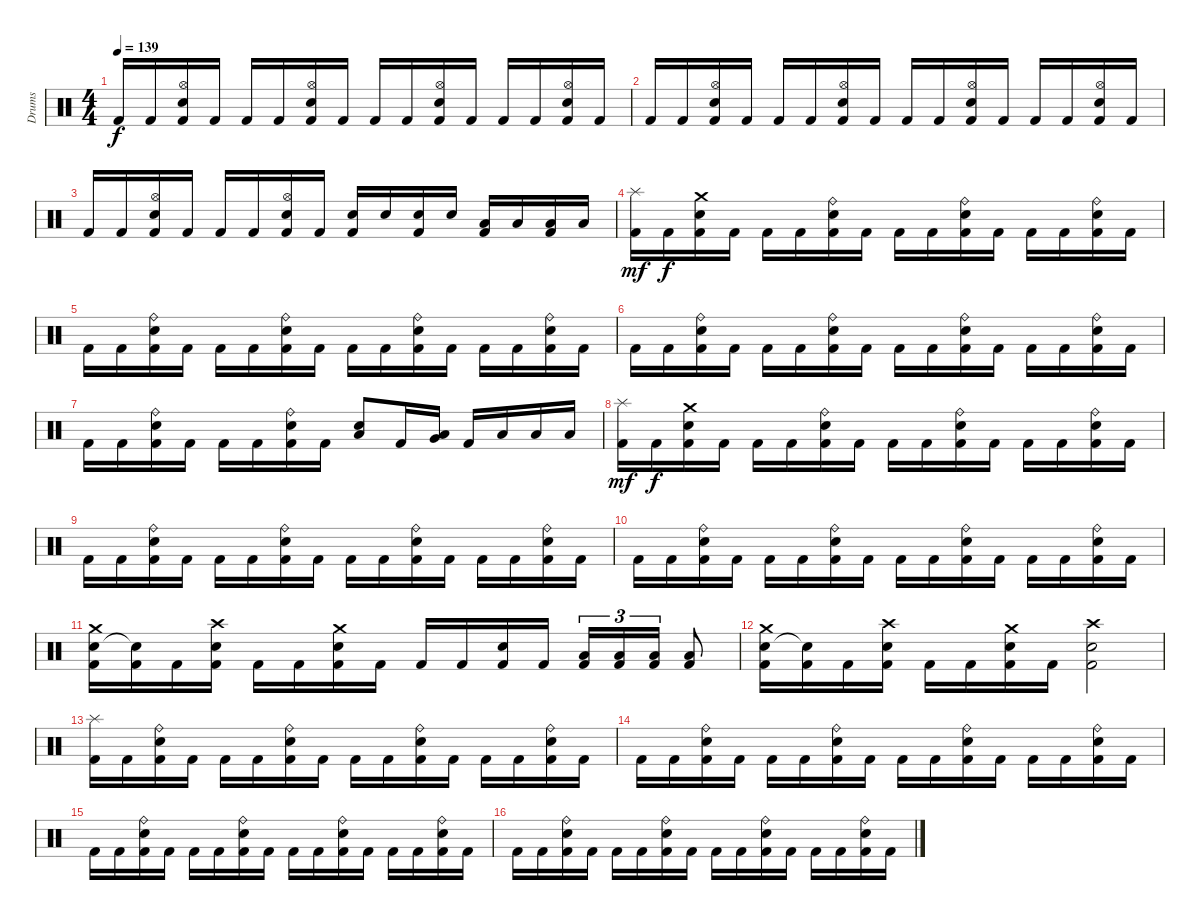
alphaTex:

\track ("Drums" "Drums") {instrument percussion}
\staff {score}
\articulation defaults
\ts (4 4)
\tempo 139
\clef neutral
\ks c "Kick (hit) 2".16{dy f} "Kick (hit) 2".16
("Hi-Hat (open)" "Electric Snare (hit)" "Kick (hit) 2").16 "Kick (hit) 2".16 "Kick (hit) 2".16 "Kick (hit) 2".16 ("Hi-Hat (open)" "Electric Snare (hit)" "Kick (hit) 2").16 "Kick (hit) 2".16 "Kick (hit) 2".16 "Kick (hit) 2".16 ("Hi-Hat (open)" "Electric Snare (hit)" "Kick (hit) 2").16 "Kick (hit) 2".16 "Kick (hit) 2".16 "Kick (hit) 2".16 ("Hi-Hat (open)" "Electric Snare (hit)" "Kick (hit) 2").16 "Kick (hit) 2".16 |
"Kick (hit) 2".16 "Kick (hit) 2".16 ("Hi-Hat (open)" "Electric Snare (hit)" "Kick (hit) 2").16 "Kick (hit) 2".16 "Kick (hit) 2".16 "Kick (hit) 2".16 ("Hi-Hat (open)" "Electric Snare (hit)" "Kick (hit) 2").16 "Kick (hit) 2".16 "Kick (hit) 2".16 "Kick (hit) 2".16 ("Hi-Hat (open)" "Electric Snare (hit)" "Kick (hit) 2").16 "Kick (hit) 2".16 "Kick (hit) 2".16 "Kick (hit) 2".16 ("Hi-Hat (open)" "Electric Snare (hit)" "Kick (hit) 2").16 "Kick (hit) 2".16 |
"Kick (hit) 2".16 "Kick (hit) 2".16 ("Hi-Hat (open)" "Electric Snare (hit)" "Kick (hit) 2").16 "Kick (hit) 2".16 "Kick (hit) 2".16 "Kick (hit) 2".16 ("Hi-Hat (open)" "Electric Snare (hit)" "Kick (hit) 2").16 "Kick (hit) 2".16 ("Electric Snare (hit)" "Kick (hit) 2").16 "Electric Snare (hit)".16 ("Electric Snare (hit)" "Kick (hit) 2").16 "Electric Snare (hit)".16 ("Low Floor Tom (hit)" "Kick (hit) 2").16 "Low Floor Tom (hit)".16 ("Low Floor Tom (hit)" "Kick (hit) 2").16 "Low Floor Tom (hit)".16 |
("Splash (hit)" "Kick (hit) 2").16{dy mf} "Kick (hit) 2".16{dy f} ("Electric Snare (hit)" "Crash medium (hit)" "Kick (hit) 2").16 "Kick (hit) 2".16 "Kick (hit) 2".16 "Kick (hit) 2".16 ("Electric Snare (hit)" "Ride (bell)" "Kick (hit) 2").16 "Kick (hit) 2".16 "Kick (hit) 2".16 "Kick (hit) 2".16 ("Electric Snare (hit)" "Ride (bell)" "Kick (hit) 2").16 "Kick (hit) 2".16 "Kick (hit) 2".16 "Kick (hit) 2".16 ("Electric Snare (hit)" "Ride (bell)" "Kick (hit) 2").16 "Kick (hit) 2".16 |
"Kick (hit) 2".16 "Kick (hit) 2".16 ("Electric Snare (hit)" "Ride (bell)" "Kick (hit) 2").16 "Kick (hit) 2".16 "Kick (hit) 2".16 "Kick (hit) 2".16 ("Electric Snare (hit)" "Ride (bell)" "Kick (hit) 2").16 "Kick (hit) 2".16 "Kick (hit) 2".16 "Kick (hit) 2".16 ("Electric Snare (hit)" "Ride (bell)" "Kick (hit) 2").16 "Kick (hit) 2".16 "Kick (hit) 2".16 "Kick (hit) 2".16 ("Electric Snare (hit)" "Ride (bell)" "Kick (hit) 2").16 "Kick (hit) 2".16 |
"Kick (hit) 2".16 "Kick (hit) 2".16 ("Electric Snare (hit)" "Ride (bell)" "Kick (hit) 2").16 "Kick (hit) 2".16 "Kick (hit) 2".16 "Kick (hit) 2".16 ("Electric Snare (hit)" "Ride (bell)" "Kick (hit) 2").16 "Kick (hit) 2".16 "Kick (hit) 2".16 "Kick (hit) 2".16 ("Electric Snare (hit)" "Ride (bell)" "Kick (hit) 2").16 "Kick (hit) 2".16 "Kick (hit) 2".16 "Kick (hit) 2".16 ("Electric Snare (hit)" "Ride (bell)" "Kick (hit) 2").16 "Kick (hit) 2".16 |
"Kick (hit) 2".16 "Kick (hit) 2".16 ("Electric Snare (hit)" "Ride (bell)" "Kick (hit) 2").16 "Kick (hit) 2".16 "Kick (hit) 2".16 "Kick (hit) 2".16 ("Electric Snare (hit)" "Ride (bell)" "Kick (hit) 2").16 "Kick (hit) 2".16 ("Low Tom (hit)" "Electric Snare (hit)").8 "Kick (hit) 2".16 ("Very Low Tom (hit)" "Low Floor Tom (hit)").16 "Kick (hit) 2".16 "Low Floor Tom (hit)".16 "Low Floor Tom (hit)".16 "Low Floor Tom (hit)".16 |
("Splash (hit)" "Kick (hit) 2").16{dy mf} "Kick (hit) 2".16{dy f} ("Electric Snare (hit)" "Crash medium (hit)" "Kick (hit) 2").16 "Kick (hit) 2".16 "Kick (hit) 2".16 "Kick (hit) 2".16 ("Electric Snare (hit)" "Ride (bell)" "Kick (hit) 2").16 "Kick (hit) 2".16 "Kick (hit) 2".16 "Kick (hit) 2".16 ("Electric Snare (hit)" "Ride (bell)" "Kick (hit) 2").16 "Kick (hit) 2".16 "Kick (hit) 2".16 "Kick (hit) 2".16 ("Electric Snare (hit)" "Ride (bell)" "Kick (hit) 2").16 "Kick (hit) 2".16 |
"Kick (hit) 2".16 "Kick (hit) 2".16 ("Electric Snare (hit)" "Ride (bell)" "Kick (hit) 2").16 "Kick (hit) 2".16 "Kick (hit) 2".16 "Kick (hit) 2".16 ("Electric Snare (hit)" "Ride (bell)" "Kick (hit) 2").16 "Kick (hit) 2".16 "Kick (hit) 2".16 "Kick (hit) 2".16 ("Electric Snare (hit)" "Ride (bell)" "Kick (hit) 2").16 "Kick (hit) 2".16 "Kick (hit) 2".16 "Kick (hit) 2".16 ("Electric Snare (hit)" "Ride (bell)" "Kick (hit) 2").16 "Kick (hit) 2".16 |
"Kick (hit) 2".16 "Kick (hit) 2".16 ("Electric Snare (hit)" "Ride (bell)" "Kick (hit) 2").16 "Kick (hit) 2".16 "Kick (hit) 2".16 "Kick (hit) 2".16 ("Electric Snare (hit)" "Ride (bell)" "Kick (hit) 2").16 "Kick (hit) 2".16 "Kick (hit) 2".16 "Kick (hit) 2".16 ("Electric Snare (hit)" "Ride (bell)" "Kick (hit) 2").16 "Kick (hit) 2".16 "Kick (hit) 2".16 "Kick (hit) 2".16 ("Electric Snare (hit)" "Ride (bell)" "Kick (hit) 2").16 "Kick (hit) 2".16 |
("Electric Snare (hit)" "Crash medium (hit)" "Kick (hit) 2").16 ("Snare (hit)"{t} "Kick (hit) 2").16 "Kick (hit) 2".16 ("Electric Snare (hit)" "Crash high (hit)" "Kick (hit) 2").16 "Kick (hit) 2".16 "Kick (hit) 2".16 ("Electric Snare (hit)" "Crash medium (hit)" "Kick (hit) 2").16 "Kick (hit) 2".16 "Kick (hit) 2".16 "Kick (hit) 2".16 ("Electric Snare (hit)" "Kick (hit) 2").16 "Kick (hit) 2".16 ("Low Tom (hit)" "Kick (hit) 2").16{tu (3 2)} ("Low Tom (hit)" "Kick (hit) 2").16{tu (3 2)} ("Low Tom (hit)" "Kick (hit) 2").16{tu (3 2)} ("Low Tom (hit)" "Kick (hit) 2").8 |
("Electric Snare (hit)" "Crash medium (hit)" "Kick (hit) 2").16 ("Snare (hit)"{t} "Kick (hit) 2").16 "Kick (hit) 2".16 ("Electric Snare (hit)" "Crash high (hit)" "Kick (hit) 2").16 "Kick (hit) 2".16 "Kick (hit) 2".16 ("Electric Snare (hit)" "Crash medium (hit)" "Kick (hit) 2").16 "Kick (hit) 2".16 ("Electric Snare (hit)" "Crash high (hit)" "Kick (hit) 2").2 |
("Splash (hit)" "Kick (hit) 2").16 "Kick (hit) 2".16 ("Ride (bell)" "Electric Snare (hit)" "Kick (hit) 2").16 "Kick (hit) 2".16 "Kick (hit) 2".16 "Kick (hit) 2".16 ("Ride (bell)" "Electric Snare (hit)" "Kick (hit) 2").16 "Kick (hit) 2".16 "Kick (hit) 2".16 "Kick (hit) 2".16 ("Ride (bell)" "Electric Snare (hit)" "Kick (hit) 2").16 "Kick (hit) 2".16 "Kick (hit) 2".16 "Kick (hit) 2".16 ("Ride (bell)" "Electric Snare (hit)" "Kick (hit) 2").16 "Kick (hit) 2".16 |
"Kick (hit) 2".16 "Kick (hit) 2".16 ("Ride (bell)" "Electric Snare (hit)" "Kick (hit) 2").16 "Kick (hit) 2".16 "Kick (hit) 2".16 "Kick (hit) 2".16 ("Ride (bell)" "Electric Snare (hit)" "Kick (hit) 2").16 "Kick (hit) 2".16 "Kick (hit) 2".16 "Kick (hit) 2".16 ("Ride (bell)" "Electric Snare (hit)" "Kick (hit) 2").16 "Kick (hit) 2".16 "Kick (hit) 2".16 "Kick (hit) 2".16 ("Ride (bell)" "Electric Snare (hit)" "Kick (hit) 2").16 "Kick (hit) 2".16 |
"Kick (hit) 2".16 "Kick (hit) 2".16 ("Ride (bell)" "Electric Snare (hit)" "Kick (hit) 2").16 "Kick (hit) 2".16 "Kick (hit) 2".16 "Kick (hit) 2".16 ("Ride (bell)" "Electric Snare (hit)" "Kick (hit) 2").16 "Kick (hit) 2".16 "Kick (hit) 2".16 "Kick (hit) 2".16 ("Ride (bell)" "Electric Snare (hit)" "Kick (hit) 2").16 "Kick (hit) 2".16 "Kick (hit) 2".16 "Kick (hit) 2".16 ("Ride (bell)" "Electric Snare (hit)" "Kick (hit) 2").16 "Kick (hit) 2".16 |
"Kick (hit) 2".16 "Kick (hit) 2".16 ("Ride (bell)" "Electric Snare (hit)" "Kick (hit) 2").16 "Kick (hit) 2".16 "Kick (hit) 2".16 "Kick (hit) 2".16 ("Ride (bell)" "Electric Snare (hit)" "Kick (hit) 2").16 "Kick (hit) 2".16 "Kick (hit) 2".16 "Kick (hit) 2".16 ("Ride (bell)" "Electric Snare (hit)" "Kick (hit) 2").16 "Kick (hit) 2".16 "Kick (hit) 2".16 "Kick (hit) 2".16 ("Ride (bell)" "Electric Snare (hit)" "Kick (hit) 2").16 "Kick (hit) 2".16
